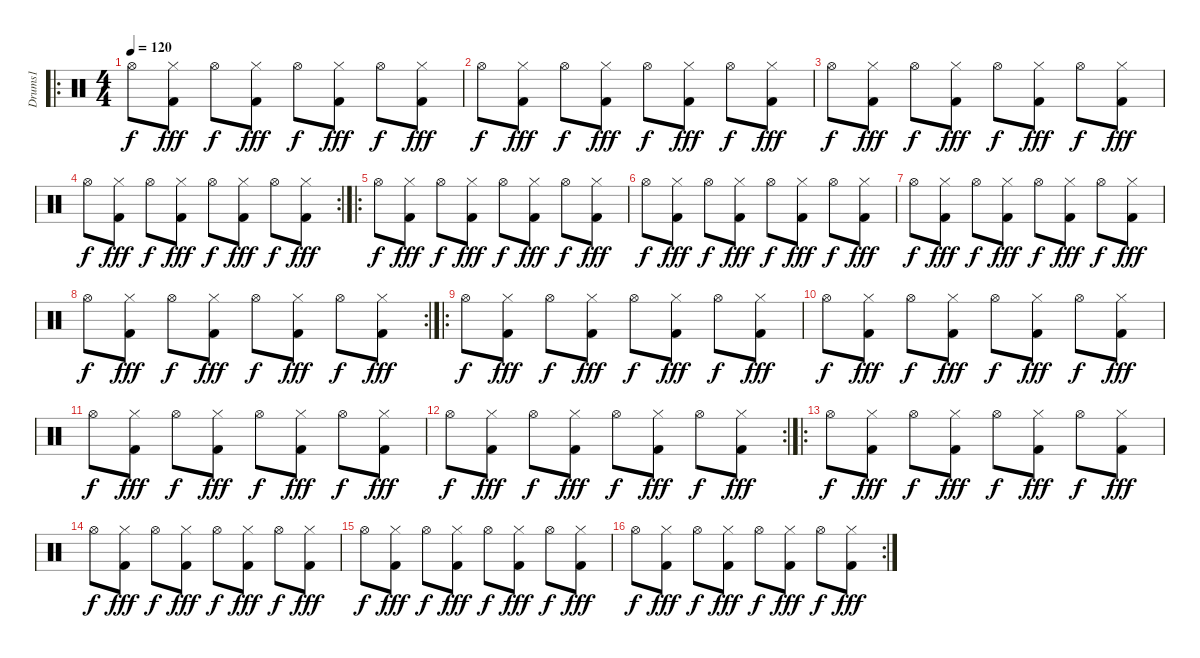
\track ("Drums1" "Drums1") {instrument percussion}
\staff {score}
\articulation defaults
\ro
\ts (4 4)
\tempo 120
\clef neutral
\ks c "Hi-Hat (open)".8{dy f}
("Kick (hit) 2" "Hi-Hat (closed)").8{dy fff} "Hi-Hat (open)".8{dy f} ("Hi-Hat (closed)" "Kick (hit) 2").8{dy fff} "Hi-Hat (open)".8{dy f} ("Kick (hit) 2" "Hi-Hat (closed)").8{dy fff} "Hi-Hat (open)".8{dy f} ("Kick (hit) 2" "Hi-Hat (closed)").8{dy fff} |
"Hi-Hat (open)".8{dy f} ("Kick (hit) 2" "Hi-Hat (closed)").8{dy fff} "Hi-Hat (open)".8{dy f} ("Hi-Hat (closed)" "Kick (hit) 2").8{dy fff} "Hi-Hat (open)".8{dy f} ("Kick (hit) 2" "Hi-Hat (closed)").8{dy fff} "Hi-Hat (open)".8{dy f} ("Kick (hit) 2" "Hi-Hat (closed)").8{dy fff} |
"Hi-Hat (open)".8{dy f} ("Kick (hit) 2" "Hi-Hat (closed)").8{dy fff} "Hi-Hat (open)".8{dy f} ("Hi-Hat (closed)" "Kick (hit) 2").8{dy fff} "Hi-Hat (open)".8{dy f} ("Kick (hit) 2" "Hi-Hat (closed)").8{dy fff} "Hi-Hat (open)".8{dy f} ("Kick (hit) 2" "Hi-Hat (closed)").8{dy fff} |
\rc 2 "Hi-Hat (open)".8{dy f}
("Kick (hit) 2" "Hi-Hat (closed)").8{dy fff} "Hi-Hat (open)".8{dy f} ("Hi-Hat (closed)" "Kick (hit) 2").8{dy fff} "Hi-Hat (open)".8{dy f} ("Kick (hit) 2" "Hi-Hat (closed)").8{dy fff} "Hi-Hat (open)".8{dy f} ("Kick (hit) 2" "Hi-Hat (closed)").8{dy fff} |
\ro "Hi-Hat (open)".8{dy f}
("Kick (hit) 2" "Hi-Hat (closed)").8{dy fff} "Hi-Hat (open)".8{dy f} ("Hi-Hat (closed)" "Kick (hit) 2").8{dy fff} "Hi-Hat (open)".8{dy f} ("Kick (hit) 2" "Hi-Hat (closed)").8{dy fff} "Hi-Hat (open)".8{dy f} ("Kick (hit) 2" "Hi-Hat (closed)").8{dy fff} |
"Hi-Hat (open)".8{dy f} ("Kick (hit) 2" "Hi-Hat (closed)").8{dy fff} "Hi-Hat (open)".8{dy f} ("Hi-Hat (closed)" "Kick (hit) 2").8{dy fff} "Hi-Hat (open)".8{dy f} ("Kick (hit) 2" "Hi-Hat (closed)").8{dy fff} "Hi-Hat (open)".8{dy f} ("Kick (hit) 2" "Hi-Hat (closed)").8{dy fff} |
"Hi-Hat (open)".8{dy f} ("Kick (hit) 2" "Hi-Hat (closed)").8{dy fff} "Hi-Hat (open)".8{dy f} ("Hi-Hat (closed)" "Kick (hit) 2").8{dy fff} "Hi-Hat (open)".8{dy f} ("Kick (hit) 2" "Hi-Hat (closed)").8{dy fff} "Hi-Hat (open)".8{dy f} ("Kick (hit) 2" "Hi-Hat (closed)").8{dy fff} |
\rc 2 "Hi-Hat (open)".8{dy f}
("Kick (hit) 2" "Hi-Hat (closed)").8{dy fff} "Hi-Hat (open)".8{dy f} ("Hi-Hat (closed)" "Kick (hit) 2").8{dy fff} "Hi-Hat (open)".8{dy f} ("Kick (hit) 2" "Hi-Hat (closed)").8{dy fff} "Hi-Hat (open)".8{dy f} ("Kick (hit) 2" "Hi-Hat (closed)").8{dy fff} |
\ro "Hi-Hat (open)".8{dy f}
("Kick (hit) 2" "Hi-Hat (closed)").8{dy fff} "Hi-Hat (open)".8{dy f} ("Hi-Hat (closed)" "Kick (hit) 2").8{dy fff} "Hi-Hat (open)".8{dy f} ("Kick (hit) 2" "Hi-Hat (closed)").8{dy fff} "Hi-Hat (open)".8{dy f} ("Kick (hit) 2" "Hi-Hat (closed)").8{dy fff} |
"Hi-Hat (open)".8{dy f} ("Kick (hit) 2" "Hi-Hat (closed)").8{dy fff} "Hi-Hat (open)".8{dy f} ("Hi-Hat (closed)" "Kick (hit) 2").8{dy fff} "Hi-Hat (open)".8{dy f} ("Kick (hit) 2" "Hi-Hat (closed)").8{dy fff} "Hi-Hat (open)".8{dy f} ("Kick (hit) 2" "Hi-Hat (closed)").8{dy fff} |
"Hi-Hat (open)".8{dy f} ("Kick (hit) 2" "Hi-Hat (closed)").8{dy fff} "Hi-Hat (open)".8{dy f} ("Hi-Hat (closed)" "Kick (hit) 2").8{dy fff} "Hi-Hat (open)".8{dy f} ("Kick (hit) 2" "Hi-Hat (closed)").8{dy fff} "Hi-Hat (open)".8{dy f} ("Kick (hit) 2" "Hi-Hat (closed)").8{dy fff} |
\rc 2 "Hi-Hat (open)".8{dy f}
("Kick (hit) 2" "Hi-Hat (closed)").8{dy fff} "Hi-Hat (open)".8{dy f} ("Hi-Hat (closed)" "Kick (hit) 2").8{dy fff} "Hi-Hat (open)".8{dy f} ("Kick (hit) 2" "Hi-Hat (closed)").8{dy fff} "Hi-Hat (open)".8{dy f} ("Kick (hit) 2" "Hi-Hat (closed)").8{dy fff} |
\ro "Hi-Hat (open)".8{dy f}
("Kick (hit) 2" "Hi-Hat (closed)").8{dy fff} "Hi-Hat (open)".8{dy f} ("Hi-Hat (closed)" "Kick (hit) 2").8{dy fff} "Hi-Hat (open)".8{dy f} ("Kick (hit) 2" "Hi-Hat (closed)").8{dy fff} "Hi-Hat (open)".8{dy f} ("Kick (hit) 2" "Hi-Hat (closed)").8{dy fff} |
"Hi-Hat (open)".8{dy f} ("Kick (hit) 2" "Hi-Hat (closed)").8{dy fff} "Hi-Hat (open)".8{dy f} ("Hi-Hat (closed)" "Kick (hit) 2").8{dy fff} "Hi-Hat (open)".8{dy f} ("Kick (hit) 2" "Hi-Hat (closed)").8{dy fff} "Hi-Hat (open)".8{dy f} ("Kick (hit) 2" "Hi-Hat (closed)").8{dy fff} |
"Hi-Hat (open)".8{dy f} ("Kick (hit) 2" "Hi-Hat (closed)").8{dy fff} "Hi-Hat (open)".8{dy f} ("Hi-Hat (closed)" "Kick (hit) 2").8{dy fff} "Hi-Hat (open)".8{dy f} ("Kick (hit) 2" "Hi-Hat (closed)").8{dy fff} "Hi-Hat (open)".8{dy f} ("Kick (hit) 2" "Hi-Hat (closed)").8{dy fff} |
\rc 2 "Hi-Hat (open)".8{dy f}
("Kick (hit) 2" "Hi-Hat (closed)").8{dy fff} "Hi-Hat (open)".8{dy f} ("Hi-Hat (closed)" "Kick (hit) 2").8{dy fff} "Hi-Hat (open)".8{dy f} ("Kick (hit) 2" "Hi-Hat (closed)").8{dy fff} "Hi-Hat (open)".8{dy f} ("Kick (hit) 2" "Hi-Hat (closed)").8{dy fff}
